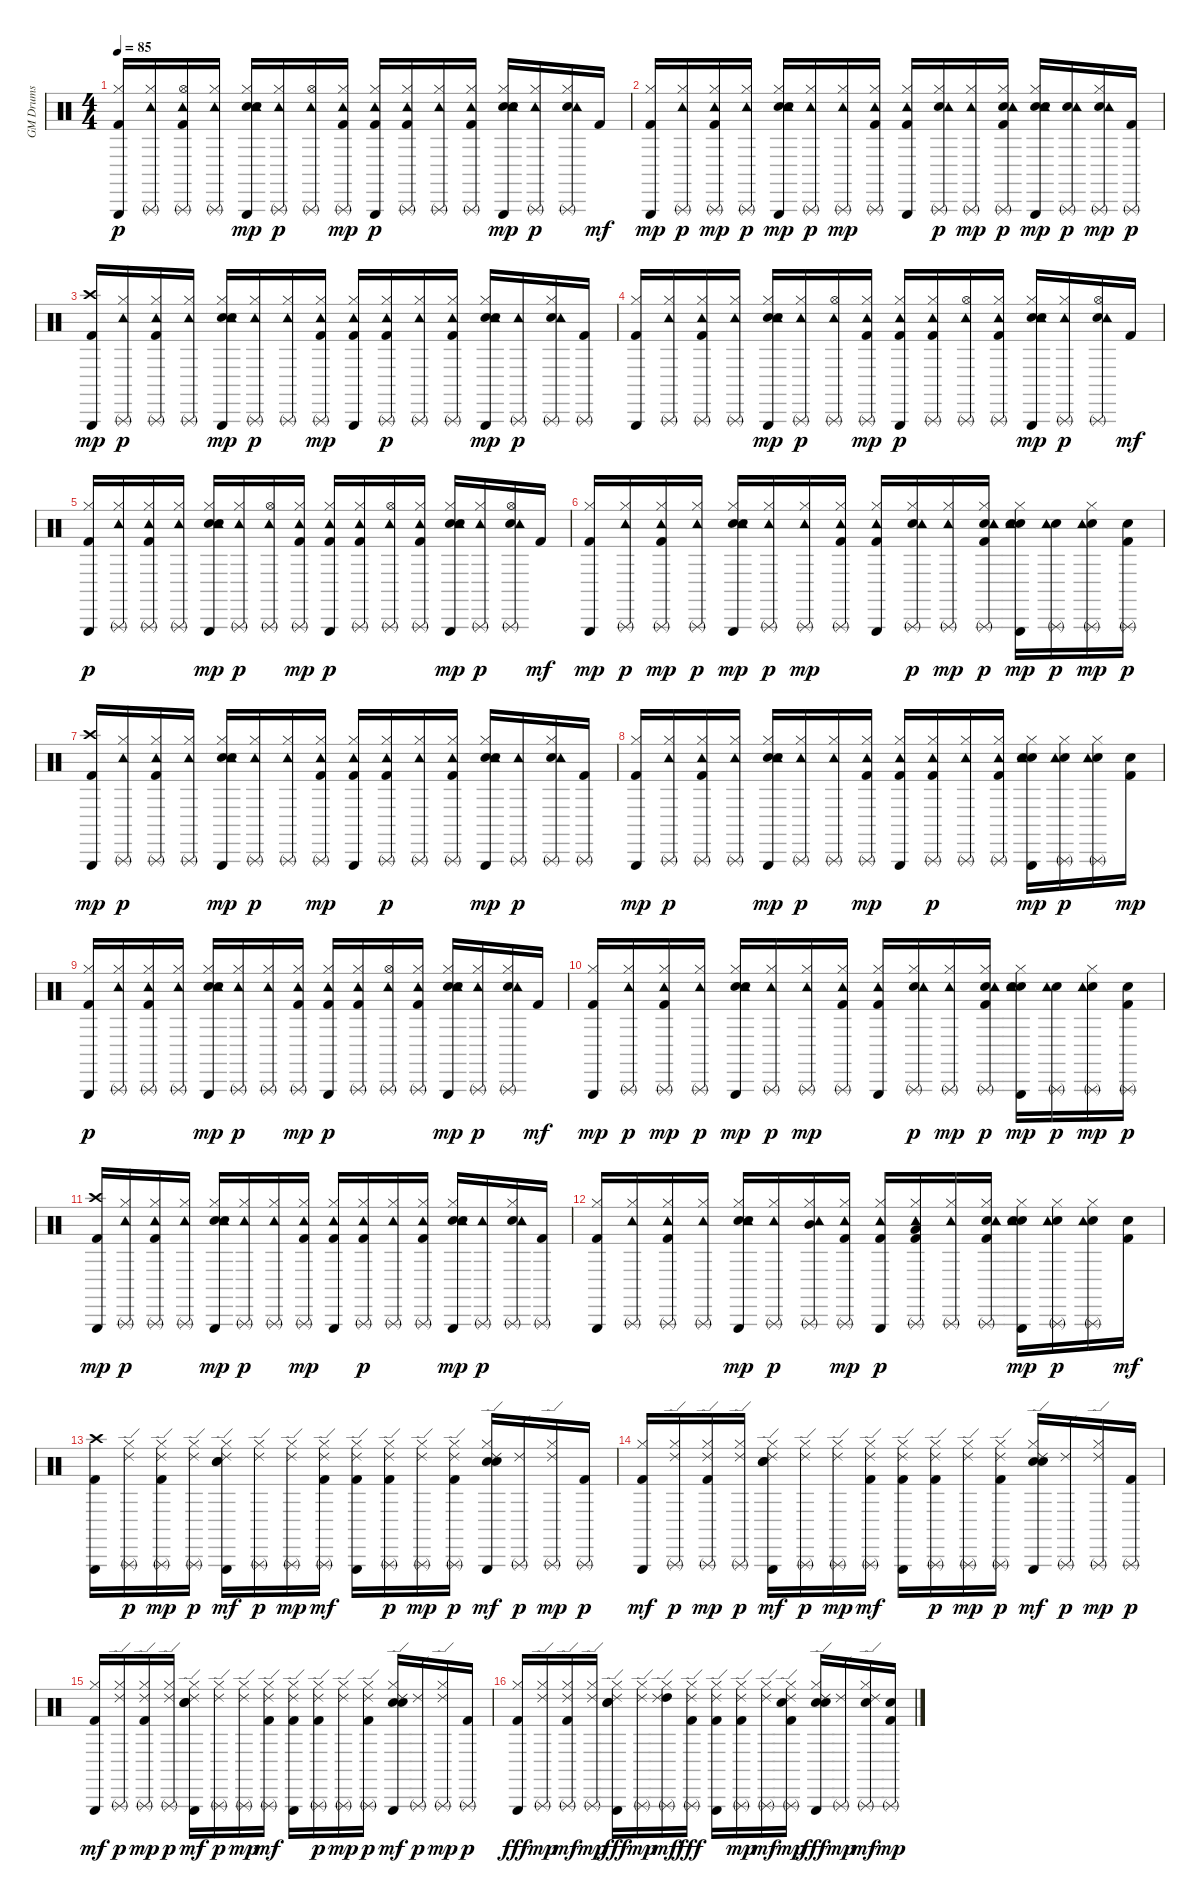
\track ("GM Drums" "GM Drums") {instrument percussion}
\staff {score}
\articulation defaults
\ts (4 4)
\tempo 85
\clef neutral
\ks c
("Kick (hit) 2" "Hi-Hat (closed)" "Triangle (hit)").16{dy p} ("Hi-Hat (closed)" "Tambourine (hit)" "Triangle (rnute)").16 ("Kick (hit) 2" "Hi-Hat (open)" "Tambourine (hit)" "Triangle (rnute)").16 ("Hi-Hat (closed)" "Tambourine (hit)" "Triangle (rnute)").16 ("Snare (hit) 2" "Hand Clap (hit)" "Hi-Hat (closed)" "Tambourine (hit)" "Triangle (hit)").16{dy mp} ("Hi-Hat (closed)" "Tambourine (hit)" "Triangle (rnute)").16{dy p} ("Hi-Hat (open)" "Tambourine (hit)" "Triangle (rnute)").16 ("Kick (hit) 2" "Hi-Hat (closed)" "Tambourine (hit)" "Triangle (rnute)").16{dy mp} ("Kick (hit) 2" "Hi-Hat (closed)" "Tambourine (hit)" "Triangle (hit)").16{dy p} ("Kick (hit) 2" "Hi-Hat (closed)" "Tambourine (hit)" "Triangle (rnute)").16 ("Hi-Hat (closed)" "Tambourine (hit)" "Triangle (rnute)").16 ("Kick (hit) 2" "Hi-Hat (closed)" "Tambourine (hit)" "Triangle (rnute)").16 ("Snare (hit) 2" "Hand Clap (hit)" "Hi-Hat (closed)" "Tambourine (hit)" "Triangle (hit)").16{dy mp} ("Hi-Hat (closed)" "Tambourine (hit)" "Triangle (rnute)").16{dy p} ("Snare (hit) 2" "Hi-Hat (closed)" "Tambourine (hit)" "Triangle (rnute)").16 "Kick (hit) 2".16{dy mf} |
("Kick (hit) 2" "Hi-Hat (closed)" "Triangle (hit)").16{dy mp} ("Hi-Hat (closed)" "Tambourine (hit)" "Triangle (rnute)").16{dy p} ("Kick (hit) 2" "Hi-Hat (closed)" "Tambourine (hit)" "Triangle (rnute)").16{dy mp} ("Hi-Hat (closed)" "Tambourine (hit)" "Triangle (rnute)").16{dy p} ("Snare (hit) 2" "Hand Clap (hit)" "Hi-Hat (closed)" "Tambourine (hit)" "Triangle (hit)").16{dy mp} ("Hi-Hat (closed)" "Tambourine (hit)" "Triangle (rnute)").16{dy p} ("Hi-Hat (closed)" "Tambourine (hit)" "Triangle (rnute)").16{dy mp} ("Kick (hit) 2" "Hi-Hat (closed)" "Tambourine (hit)" "Triangle (rnute)").16 ("Kick (hit) 2" "Hi-Hat (closed)" "Tambourine (hit)" "Triangle (hit)").16 ("Snare (hit) 2" "Hi-Hat (closed)" "Tambourine (hit)" "Triangle (rnute)").16{dy p} ("Hi-Hat (closed)" "Tambourine (hit)" "Triangle (rnute)").16{dy mp} ("Kick (hit) 2" "Snare (hit) 2" "Hi-Hat (closed)" "Tambourine (hit)" "Triangle (rnute)").16{dy p} ("Snare (hit) 2" "Hand Clap (hit)" "Hi-Hat (closed)" "Tambourine (hit)" "Triangle (hit)").16{dy mp} ("Snare (hit) 2" "Tambourine (hit)" "Triangle (rnute)").16{dy p} ("Snare (hit) 2" "Hi-Hat (closed)" "Tambourine (hit)" "Triangle (rnute)").16{dy mp} ("Kick (hit) 2" "Triangle (rnute)").16{dy p} |
("Kick (hit) 2" "Crash high (hit)" "Triangle (hit)").16{dy mp} ("Hi-Hat (closed)" "Tambourine (hit)" "Triangle (rnute)").16{dy p} ("Kick (hit) 2" "Hi-Hat (closed)" "Tambourine (hit)" "Triangle (rnute)").16 ("Hi-Hat (closed)" "Tambourine (hit)" "Triangle (rnute)").16 ("Snare (hit) 2" "Hand Clap (hit)" "Hi-Hat (closed)" "Tambourine (hit)" "Triangle (hit)").16{dy mp} ("Hi-Hat (closed)" "Tambourine (hit)" "Triangle (rnute)").16{dy p} ("Hi-Hat (closed)" "Tambourine (hit)" "Triangle (rnute)").16 ("Kick (hit) 2" "Hi-Hat (closed)" "Tambourine (hit)" "Triangle (rnute)").16{dy mp} ("Kick (hit) 2" "Hi-Hat (closed)" "Tambourine (hit)" "Triangle (hit)").16 ("Kick (hit) 2" "Hi-Hat (closed)" "Tambourine (hit)" "Triangle (rnute)").16{dy p} ("Hi-Hat (closed)" "Tambourine (hit)" "Triangle (rnute)").16 ("Kick (hit) 2" "Hi-Hat (closed)" "Tambourine (hit)" "Triangle (rnute)").16 ("Snare (hit) 2" "Hand Clap (hit)" "Hi-Hat (closed)" "Tambourine (hit)" "Triangle (hit)").16{dy mp} ("Tambourine (hit)" "Triangle (rnute)").16{dy p} ("Snare (hit) 2" "Hi-Hat (closed)" "Tambourine (hit)" "Triangle (rnute)").16 ("Kick (hit) 2" "Triangle (rnute)").16 |
("Kick (hit) 2" "Hi-Hat (closed)" "Triangle (hit)").16 ("Hi-Hat (closed)" "Tambourine (hit)" "Triangle (rnute)").16 ("Kick (hit) 2" "Hi-Hat (closed)" "Tambourine (hit)" "Triangle (rnute)").16 ("Hi-Hat (closed)" "Tambourine (hit)" "Triangle (rnute)").16 ("Snare (hit) 2" "Hand Clap (hit)" "Hi-Hat (closed)" "Tambourine (hit)" "Triangle (hit)").16{dy mp} ("Hi-Hat (closed)" "Tambourine (hit)" "Triangle (rnute)").16{dy p} ("Hi-Hat (open)" "Tambourine (hit)" "Triangle (rnute)").16 ("Kick (hit) 2" "Hi-Hat (closed)" "Tambourine (hit)" "Triangle (rnute)").16{dy mp} ("Kick (hit) 2" "Hi-Hat (closed)" "Tambourine (hit)" "Triangle (hit)").16{dy p} ("Kick (hit) 2" "Hi-Hat (closed)" "Tambourine (hit)" "Triangle (rnute)").16 ("Hi-Hat (open)" "Tambourine (hit)" "Triangle (rnute)").16 ("Kick (hit) 2" "Hi-Hat (closed)" "Tambourine (hit)" "Triangle (rnute)").16 ("Snare (hit) 2" "Hand Clap (hit)" "Hi-Hat (closed)" "Tambourine (hit)" "Triangle (hit)").16{dy mp} ("Hi-Hat (closed)" "Tambourine (hit)" "Triangle (rnute)").16{dy p} ("Snare (hit) 2" "Hi-Hat (open)" "Tambourine (hit)" "Triangle (rnute)").16 "Kick (hit) 2".16{dy mf} |
("Kick (hit) 2" "Hi-Hat (closed)" "Triangle (hit)").16{dy p} ("Hi-Hat (closed)" "Tambourine (hit)" "Triangle (rnute)").16 ("Kick (hit) 2" "Hi-Hat (closed)" "Tambourine (hit)" "Triangle (rnute)").16 ("Hi-Hat (closed)" "Tambourine (hit)" "Triangle (rnute)").16 ("Snare (hit) 2" "Hand Clap (hit)" "Hi-Hat (closed)" "Tambourine (hit)" "Triangle (hit)").16{dy mp} ("Hi-Hat (closed)" "Tambourine (hit)" "Triangle (rnute)").16{dy p} ("Hi-Hat (open)" "Tambourine (hit)" "Triangle (rnute)").16 ("Kick (hit) 2" "Hi-Hat (closed)" "Tambourine (hit)" "Triangle (rnute)").16{dy mp} ("Kick (hit) 2" "Hi-Hat (closed)" "Tambourine (hit)" "Triangle (hit)").16{dy p} ("Kick (hit) 2" "Hi-Hat (closed)" "Tambourine (hit)" "Triangle (rnute)").16 ("Hi-Hat (open)" "Tambourine (hit)" "Triangle (rnute)").16 ("Kick (hit) 2" "Hi-Hat (closed)" "Tambourine (hit)" "Triangle (rnute)").16 ("Snare (hit) 2" "Hand Clap (hit)" "Hi-Hat (closed)" "Tambourine (hit)" "Triangle (hit)").16{dy mp} ("Hi-Hat (closed)" "Tambourine (hit)" "Triangle (rnute)").16{dy p} ("Snare (hit) 2" "Hi-Hat (open)" "Tambourine (hit)" "Triangle (rnute)").16 "Kick (hit) 2".16{dy mf} |
("Kick (hit) 2" "Hi-Hat (closed)" "Triangle (hit)").16{dy mp} ("Hi-Hat (closed)" "Tambourine (hit)" "Triangle (rnute)").16{dy p} ("Kick (hit) 2" "Hi-Hat (closed)" "Tambourine (hit)" "Triangle (rnute)").16{dy mp} ("Hi-Hat (closed)" "Tambourine (hit)" "Triangle (rnute)").16{dy p} ("Snare (hit) 2" "Hand Clap (hit)" "Hi-Hat (closed)" "Tambourine (hit)" "Triangle (hit)").16{dy mp} ("Hi-Hat (closed)" "Tambourine (hit)" "Triangle (rnute)").16{dy p} ("Hi-Hat (closed)" "Tambourine (hit)" "Triangle (rnute)").16{dy mp} ("Kick (hit) 2" "Hi-Hat (closed)" "Tambourine (hit)" "Triangle (rnute)").16 ("Kick (hit) 2" "Hi-Hat (closed)" "Tambourine (hit)" "Triangle (hit)").16 ("Snare (hit) 2" "Hi-Hat (closed)" "Tambourine (hit)" "Triangle (rnute)").16{dy p} ("Hi-Hat (closed)" "Tambourine (hit)" "Triangle (rnute)").16{dy mp} ("Kick (hit) 2" "Snare (hit) 2" "Hi-Hat (closed)" "Tambourine (hit)" "Triangle (rnute)").16{dy p} ("Snare (hit) 2" "Hand Clap (hit)" "Hi-Hat (closed)" "Tambourine (hit)" "Triangle (hit)").16{dy mp} ("Snare (hit) 2" "Tambourine (hit)" "Triangle (rnute)").16{dy p} ("Snare (hit) 2" "Hi-Hat (closed)" "Tambourine (hit)" "Triangle (rnute)").16{dy mp} ("Kick (hit) 2" "Snare (hit) 2" "Triangle (rnute)").16{dy p} |
("Kick (hit) 2" "Crash high (hit)" "Triangle (hit)").16{dy mp} ("Hi-Hat (closed)" "Tambourine (hit)" "Triangle (rnute)").16{dy p} ("Kick (hit) 2" "Hi-Hat (closed)" "Tambourine (hit)" "Triangle (rnute)").16 ("Hi-Hat (closed)" "Tambourine (hit)" "Triangle (rnute)").16 ("Snare (hit) 2" "Hand Clap (hit)" "Hi-Hat (closed)" "Tambourine (hit)" "Triangle (hit)").16{dy mp} ("Hi-Hat (closed)" "Tambourine (hit)" "Triangle (rnute)").16{dy p} ("Hi-Hat (closed)" "Tambourine (hit)" "Triangle (rnute)").16 ("Kick (hit) 2" "Hi-Hat (closed)" "Tambourine (hit)" "Triangle (rnute)").16{dy mp} ("Kick (hit) 2" "Hi-Hat (closed)" "Tambourine (hit)" "Triangle (hit)").16 ("Kick (hit) 2" "Hi-Hat (closed)" "Tambourine (hit)" "Triangle (rnute)").16{dy p} ("Hi-Hat (closed)" "Tambourine (hit)" "Triangle (rnute)").16 ("Kick (hit) 2" "Hi-Hat (closed)" "Tambourine (hit)" "Triangle (rnute)").16 ("Snare (hit) 2" "Hand Clap (hit)" "Hi-Hat (closed)" "Tambourine (hit)" "Triangle (hit)").16{dy mp} ("Tambourine (hit)" "Triangle (rnute)").16{dy p} ("Snare (hit) 2" "Hi-Hat (closed)" "Tambourine (hit)" "Triangle (rnute)").16 ("Kick (hit) 2" "Triangle (rnute)").16 |
("Kick (hit) 2" "Hi-Hat (closed)" "Triangle (hit)").16{dy mp} ("Hi-Hat (closed)" "Tambourine (hit)" "Triangle (rnute)").16{dy p} ("Kick (hit) 2" "Hi-Hat (closed)" "Tambourine (hit)" "Triangle (rnute)").16 ("Hi-Hat (closed)" "Tambourine (hit)" "Triangle (rnute)").16 ("Snare (hit) 2" "Hand Clap (hit)" "Hi-Hat (closed)" "Tambourine (hit)" "Triangle (hit)").16{dy mp} ("Hi-Hat (closed)" "Tambourine (hit)" "Triangle (rnute)").16{dy p} ("Hi-Hat (closed)" "Tambourine (hit)" "Triangle (rnute)").16 ("Kick (hit) 2" "Hi-Hat (closed)" "Tambourine (hit)" "Triangle (rnute)").16{dy mp} ("Kick (hit) 2" "Hi-Hat (closed)" "Tambourine (hit)" "Triangle (hit)").16 ("Kick (hit) 2" "Hi-Hat (closed)" "Tambourine (hit)" "Triangle (rnute)").16{dy p} ("Hi-Hat (closed)" "Tambourine (hit)" "Triangle (rnute)").16 ("Kick (hit) 2" "Hi-Hat (closed)" "Tambourine (hit)" "Triangle (rnute)").16 ("Snare (hit) 2" "Hand Clap (hit)" "Hi-Hat (closed)" "Tambourine (hit)" "Triangle (hit)").16{dy mp} ("Snare (hit) 2" "Hi-Hat (closed)" "Tambourine (hit)" "Triangle (rnute)").16{dy p} ("Snare (hit) 2" "Hi-Hat (closed)" "Tambourine (hit)" "Triangle (rnute)").16 ("Kick (hit) 2" "Snare (hit) 2").16{dy mp} |
("Kick (hit) 2" "Hi-Hat (closed)" "Triangle (hit)").16{dy p} ("Hi-Hat (closed)" "Tambourine (hit)" "Triangle (rnute)").16 ("Kick (hit) 2" "Hi-Hat (closed)" "Tambourine (hit)" "Triangle (rnute)").16 ("Hi-Hat (closed)" "Tambourine (hit)" "Triangle (rnute)").16 ("Snare (hit) 2" "Hand Clap (hit)" "Hi-Hat (closed)" "Tambourine (hit)" "Triangle (hit)").16{dy mp} ("Hi-Hat (closed)" "Tambourine (hit)" "Triangle (rnute)").16{dy p} ("Hi-Hat (closed)" "Tambourine (hit)" "Triangle (rnute)").16 ("Kick (hit) 2" "Hi-Hat (closed)" "Tambourine (hit)" "Triangle (rnute)").16{dy mp} ("Kick (hit) 2" "Hi-Hat (closed)" "Tambourine (hit)" "Triangle (hit)").16{dy p} ("Kick (hit) 2" "Hi-Hat (closed)" "Tambourine (hit)" "Triangle (rnute)").16 ("Hi-Hat (open)" "Tambourine (hit)" "Triangle (rnute)").16 ("Kick (hit) 2" "Hi-Hat (closed)" "Tambourine (hit)" "Triangle (rnute)").16 ("Snare (hit) 2" "Hand Clap (hit)" "Hi-Hat (closed)" "Tambourine (hit)" "Triangle (hit)").16{dy mp} ("Hi-Hat (closed)" "Tambourine (hit)" "Triangle (rnute)").16{dy p} ("Snare (hit) 2" "Hi-Hat (closed)" "Tambourine (hit)" "Triangle (rnute)").16 "Kick (hit) 2".16{dy mf} |
("Kick (hit) 2" "Hi-Hat (closed)" "Triangle (hit)").16{dy mp} ("Hi-Hat (closed)" "Tambourine (hit)" "Triangle (rnute)").16{dy p} ("Kick (hit) 2" "Hi-Hat (closed)" "Tambourine (hit)" "Triangle (rnute)").16{dy mp} ("Hi-Hat (closed)" "Tambourine (hit)" "Triangle (rnute)").16{dy p} ("Snare (hit) 2" "Hand Clap (hit)" "Hi-Hat (closed)" "Tambourine (hit)" "Triangle (hit)").16{dy mp} ("Hi-Hat (closed)" "Tambourine (hit)" "Triangle (rnute)").16{dy p} ("Hi-Hat (closed)" "Tambourine (hit)" "Triangle (rnute)").16{dy mp} ("Kick (hit) 2" "Hi-Hat (closed)" "Tambourine (hit)" "Triangle (rnute)").16 ("Kick (hit) 2" "Hi-Hat (closed)" "Tambourine (hit)" "Triangle (hit)").16 ("Snare (hit) 2" "Hi-Hat (closed)" "Tambourine (hit)" "Triangle (rnute)").16{dy p} ("Hi-Hat (closed)" "Tambourine (hit)" "Triangle (rnute)").16{dy mp} ("Kick (hit) 2" "Snare (hit) 2" "Hi-Hat (closed)" "Tambourine (hit)" "Triangle (rnute)").16{dy p} ("Snare (hit) 2" "Hand Clap (hit)" "Hi-Hat (closed)" "Tambourine (hit)" "Triangle (hit)").16{dy mp} ("Snare (hit) 2" "Tambourine (hit)" "Triangle (rnute)").16{dy p} ("Snare (hit) 2" "Hi-Hat (closed)" "Tambourine (hit)" "Triangle (rnute)").16{dy mp} ("Kick (hit) 2" "Snare (hit) 2" "Triangle (rnute)").16{dy p} |
("Kick (hit) 2" "Crash high (hit)" "Triangle (hit)").16{dy mp} ("Hi-Hat (closed)" "Tambourine (hit)" "Triangle (rnute)").16{dy p} ("Kick (hit) 2" "Hi-Hat (closed)" "Tambourine (hit)" "Triangle (rnute)").16 ("Hi-Hat (closed)" "Tambourine (hit)" "Triangle (rnute)").16 ("Snare (hit) 2" "Hand Clap (hit)" "Hi-Hat (closed)" "Tambourine (hit)" "Triangle (hit)").16{dy mp} ("Hi-Hat (closed)" "Tambourine (hit)" "Triangle (rnute)").16{dy p} ("Hi-Hat (closed)" "Tambourine (hit)" "Triangle (rnute)").16 ("Kick (hit) 2" "Hi-Hat (closed)" "Tambourine (hit)" "Triangle (rnute)").16{dy mp} ("Kick (hit) 2" "Hi-Hat (closed)" "Tambourine (hit)" "Triangle (hit)").16 ("Kick (hit) 2" "Hi-Hat (closed)" "Tambourine (hit)" "Triangle (rnute)").16{dy p} ("Hi-Hat (closed)" "Tambourine (hit)" "Triangle (rnute)").16 ("Kick (hit) 2" "Hi-Hat (closed)" "Tambourine (hit)" "Triangle (rnute)").16 ("Snare (hit) 2" "Hand Clap (hit)" "Hi-Hat (closed)" "Tambourine (hit)" "Triangle (hit)").16{dy mp} ("Tambourine (hit)" "Triangle (rnute)").16{dy p} ("Snare (hit) 2" "Hi-Hat (closed)" "Tambourine (hit)" "Triangle (rnute)").16 ("Kick (hit) 2" "Triangle (rnute)").16 |
("Kick (hit) 2" "Hi-Hat (closed)" "Triangle (hit)").16 ("Hi-Hat (closed)" "Tambourine (hit)" "Triangle (rnute)").16 ("Kick (hit) 2" "Hi-Hat (closed)" "Tambourine (hit)" "Triangle (rnute)").16 ("Hi-Hat (closed)" "Tambourine (hit)" "Triangle (rnute)").16 ("Snare (hit) 2" "Hand Clap (hit)" "Hi-Hat (closed)" "Tambourine (hit)" "Triangle (hit)").16{dy mp} ("Hi-Hat (closed)" "Tambourine (hit)" "Triangle (rnute)").16{dy p} ("Hi-Hat (closed)" "Mid Tom (hit)" "Tambourine (hit)" "Triangle (rnute)").16 ("Kick (hit) 2" "Hi-Hat (closed)" "Tambourine (hit)" "Triangle (rnute)").16{dy mp} ("Kick (hit) 2" "Hi-Hat (closed)" "Tambourine (hit)" "Triangle (hit)").16{dy p} ("Kick (hit) 2" "Hi-Hat (closed)" "Low Tom (hit)" "Tambourine (hit)" "Triangle (rnute)").16 ("Hi-Hat (closed)" "Tambourine (hit)" "Triangle (rnute)").16 ("Kick (hit) 2" "Snare (hit) 2" "Hi-Hat (closed)" "Tambourine (hit)" "Triangle (rnute)").16 ("Snare (hit) 2" "Hand Clap (hit)" "Hi-Hat (closed)" "Tambourine (hit)" "Triangle (hit)").16{dy mp} ("Snare (hit) 2" "Hi-Hat (closed)" "Tambourine (hit)" "Triangle (rnute)").16{dy p} ("Snare (hit) 2" "Hi-Hat (closed)" "Tambourine (hit)" "Triangle (rnute)").16 ("Kick (hit) 2" "Snare (hit) 2").16{dy mf} |
("Kick (hit) 2" "Crash high (hit)" "Triangle (hit)").16 ("Hi-Hat (closed)" "Ride (edge) 2" "Triangle (rnute)").16{dy p} ("Kick (hit) 2" "Hi-Hat (closed)" "Ride (edge) 2" "Triangle (rnute)").16{dy mp} ("Hi-Hat (closed)" "Ride (edge) 2" "Triangle (rnute)").16{dy p} ("Snare (hit) 2" "Hand Clap (hit)" "Hi-Hat (closed)" "Ride (edge) 2" "Triangle (hit)").16{dy mf} ("Hi-Hat (closed)" "Ride (edge) 2" "Triangle (rnute)").16{dy p} ("Hi-Hat (closed)" "Ride (edge) 2" "Triangle (rnute)").16{dy mp} ("Kick (hit) 2" "Hi-Hat (closed)" "Ride (edge) 2" "Triangle (rnute)").16{dy mf} ("Kick (hit) 2" "Hi-Hat (closed)" "Ride (edge) 2" "Triangle (hit)").16 ("Kick (hit) 2" "Hi-Hat (closed)" "Ride (edge) 2" "Triangle (rnute)").16{dy p} ("Hi-Hat (closed)" "Ride (edge) 2" "Triangle (rnute)").16{dy mp} ("Kick (hit) 2" "Hi-Hat (closed)" "Ride (edge) 2" "Triangle (rnute)").16{dy p} ("Snare (hit) 2" "Hand Clap (hit)" "Hi-Hat (closed)" "Ride (edge) 2" "Triangle (hit)").16{dy mf} ("Ride (edge) 2" "Triangle (rnute)").16{dy p} ("Hi-Hat (closed)" "Ride (edge) 2" "Triangle (rnute)").16{dy mp} ("Kick (hit) 2" "Triangle (rnute)").16{dy p} |
("Kick (hit) 2" "Hi-Hat (closed)" "Triangle (hit)").16{dy mf} ("Hi-Hat (closed)" "Ride (edge) 2" "Triangle (rnute)").16{dy p} ("Kick (hit) 2" "Hi-Hat (closed)" "Ride (edge) 2" "Triangle (rnute)").16{dy mp} ("Hi-Hat (closed)" "Ride (edge) 2" "Triangle (rnute)").16{dy p} ("Snare (hit) 2" "Hand Clap (hit)" "Hi-Hat (closed)" "Ride (edge) 2" "Triangle (hit)").16{dy mf} ("Hi-Hat (closed)" "Ride (edge) 2" "Triangle (rnute)").16{dy p} ("Hi-Hat (closed)" "Ride (edge) 2" "Triangle (rnute)").16{dy mp} ("Kick (hit) 2" "Hi-Hat (closed)" "Ride (edge) 2" "Triangle (rnute)").16{dy mf} ("Kick (hit) 2" "Hi-Hat (closed)" "Ride (edge) 2" "Triangle (hit)").16 ("Kick (hit) 2" "Hi-Hat (closed)" "Ride (edge) 2" "Triangle (rnute)").16{dy p} ("Hi-Hat (closed)" "Ride (edge) 2" "Triangle (rnute)").16{dy mp} ("Kick (hit) 2" "Hi-Hat (closed)" "Ride (edge) 2" "Triangle (rnute)").16{dy p} ("Snare (hit) 2" "Hand Clap (hit)" "Hi-Hat (closed)" "Ride (edge) 2" "Triangle (hit)").16{dy mf} ("Ride (edge) 2" "Triangle (rnute)").16{dy p} ("Hi-Hat (closed)" "Ride (edge) 2" "Triangle (rnute)").16{dy mp} ("Kick (hit) 2" "Triangle (rnute)").16{dy p} |
("Kick (hit) 2" "Hi-Hat (closed)" "Triangle (hit)").16{dy mf} ("Hi-Hat (closed)" "Ride (edge) 2" "Triangle (rnute)").16{dy p} ("Kick (hit) 2" "Hi-Hat (closed)" "Ride (edge) 2" "Triangle (rnute)").16{dy mp} ("Hi-Hat (closed)" "Ride (edge) 2" "Triangle (rnute)").16{dy p} ("Snare (hit) 2" "Hand Clap (hit)" "Hi-Hat (closed)" "Ride (edge) 2" "Triangle (hit)").16{dy mf} ("Hi-Hat (closed)" "Ride (edge) 2" "Triangle (rnute)").16{dy p} ("Hi-Hat (closed)" "Ride (edge) 2" "Triangle (rnute)").16{dy mp} ("Kick (hit) 2" "Hi-Hat (closed)" "Ride (edge) 2" "Triangle (rnute)").16{dy mf} ("Kick (hit) 2" "Hi-Hat (closed)" "Ride (edge) 2" "Triangle (hit)").16 ("Kick (hit) 2" "Hi-Hat (closed)" "Ride (edge) 2" "Triangle (rnute)").16{dy p} ("Hi-Hat (closed)" "Ride (edge) 2" "Triangle (rnute)").16{dy mp} ("Kick (hit) 2" "Hi-Hat (closed)" "Ride (edge) 2" "Triangle (rnute)").16{dy p} ("Snare (hit) 2" "Hand Clap (hit)" "Hi-Hat (closed)" "Ride (edge) 2" "Triangle (hit)").16{dy mf} ("Ride (edge) 2" "Triangle (rnute)").16{dy p} ("Hi-Hat (closed)" "Ride (edge) 2" "Triangle (rnute)").16{dy mp} ("Kick (hit) 2" "Triangle (rnute)").16{dy p} |
("Kick (hit) 2" "Hi-Hat (closed)" "Triangle (hit)").16{dy fff} ("Hi-Hat (closed)" "Ride (edge) 2" "Triangle (rnute)").16{dy mp} ("Kick (hit) 2" "Hi-Hat (closed)" "Ride (edge) 2" "Triangle (rnute)").16{dy mf} ("Hi-Hat (closed)" "Ride (edge) 2" "Triangle (rnute)").16{dy mp} ("Snare (hit) 2" "Hand Clap (hit)" "Hi-Hat (closed)" "Ride (edge) 2" "Triangle (hit)").16{dy fff} ("Hi-Hat (closed)" "Ride (edge) 2" "Triangle (rnute)").16{dy mp} ("Hi-Hat (closed)" "High Tom (hit)" "Ride (edge) 2" "Triangle (rnute)").16{dy mf} ("Kick (hit) 2" "Hi-Hat (closed)" "Ride (edge) 2" "Triangle (rnute)").16{dy fff} ("Kick (hit) 2" "Hi-Hat (closed)" "Ride (edge) 2" "Triangle (hit)").16 ("Kick (hit) 2" "Hi-Hat (closed)" "Ride (edge) 2" "Triangle (rnute)").16{dy mp} ("Hi-Hat (closed)" "Ride (edge) 2" "Triangle (rnute)").16{dy mf} ("Kick (hit) 2" "Snare (hit) 2" "Hi-Hat (closed)" "Ride (edge) 2" "Triangle (rnute)").16{dy mp} ("Snare (hit) 2" "Hand Clap (hit)" "Hi-Hat (closed)" "Ride (edge) 2" "Triangle (hit)").16{dy fff} ("Ride (edge) 2" "Triangle (rnute)").16{dy mp} ("Snare (hit) 2" "Hi-Hat (closed)" "Ride (edge) 2" "Triangle (rnute)").16{dy mf} ("Kick (hit) 2" "Snare (hit) 2" "Triangle (rnute)").16{dy mp}
